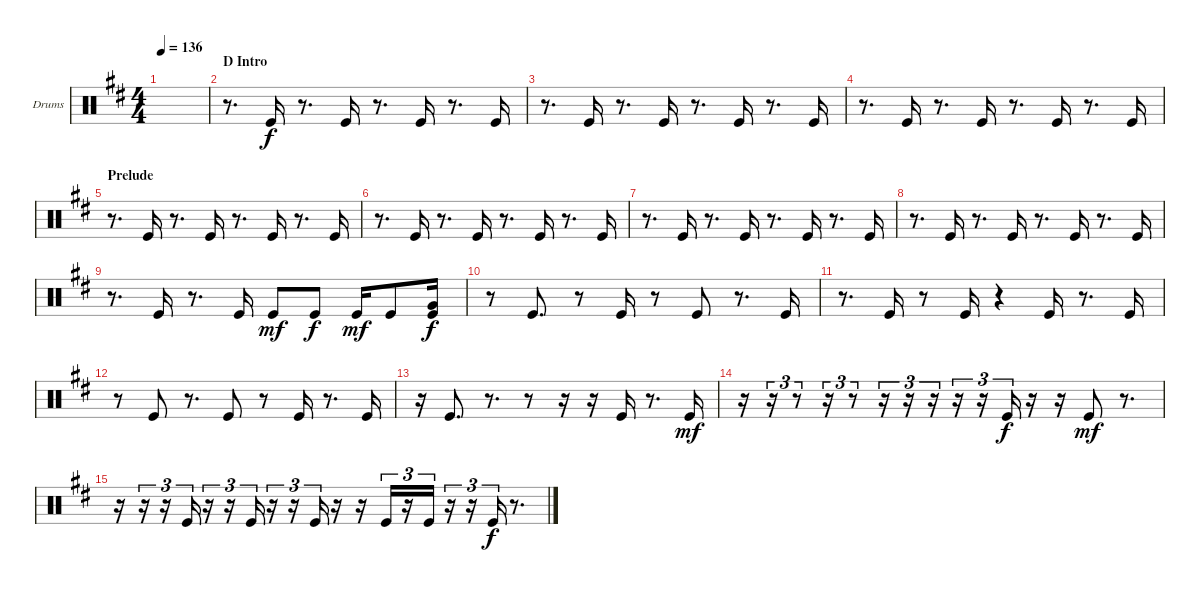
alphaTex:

\bracketExtendMode groupsimilarinstruments
\firstSystemTrackNameOrientation horizontal
\otherSystemsTrackNameOrientation horizontal
\track ("Kick" "Drums") {instrument percussion}
\staff {score}
\articulation defaults
\ts (4 4)
\tempo 136
\clef neutral
\ks d
|
\section ("" "D Intro")
r.8{d} "Kick (hit)".16 r.8{d} "Kick (hit)".16 r.8{d} "Kick (hit)".16 r.8{d} "Kick (hit)".16 |
r.8{d} "Kick (hit)".16 r.8{d} "Kick (hit)".16 r.8{d} "Kick (hit)".16 r.8{d} "Kick (hit)".16 |
r.8{d} "Kick (hit)".16 r.8{d} "Kick (hit)".16 r.8{d} "Kick (hit)".16 r.8{d} "Kick (hit)".16 |
\section ("" "Prelude")
r.8{d} "Kick (hit)".16 r.8{d} "Kick (hit)".16 r.8{d} "Kick (hit)".16 r.8{d} "Kick (hit)".16 |
r.8{d} "Kick (hit)".16 r.8{d} "Kick (hit)".16 r.8{d} "Kick (hit)".16 r.8{d} "Kick (hit)".16 |
r.8{d} "Kick (hit)".16 r.8{d} "Kick (hit)".16 r.8{d} "Kick (hit)".16 r.8{d} "Kick (hit)".16 |
r.8{d} "Kick (hit)".16 r.8{d} "Kick (hit)".16 r.8{d} "Kick (hit)".16 r.8{d} "Kick (hit)".16 |
r.8{d} "Kick (hit)".16 r.8{d} "Kick (hit)".16 "Kick (hit)".8{dy mf} "Kick (hit)".8{dy f} "Kick (hit)".16{dy mf} "Kick (hit)".8 ("Kick (hit)" "Very Low Tom (hit)").16{dy f} |
r.8 "Kick (hit)".8{d} r.8 "Kick (hit)".16 r.8 "Kick (hit)".8 r.8{d} "Kick (hit)".16 |
r.8{d} "Kick (hit)".16 r.8 "Kick (hit)".16 r.4 "Kick (hit)".16 r.8{d} "Kick (hit)".16 |
r.8 "Kick (hit)".8 r.8{d} "Kick (hit)".8 r.8 "Kick (hit)".16 r.8{d} "Kick (hit)".16 |
r.16 "Kick (hit)".8{d} r.8{d} r.8 r.16 r.16 "Kick (hit)".16 r.8{d} "Kick (hit)".16{dy mf} |
r.16 r.16{tu (3 2)} r.8{tu (3 2)} r.16{tu (3 2)} r.8{tu (3 2)} r.16{tu (3 2)} r.16{tu (3 2)} r.16{tu (3 2)} r.16{tu (3 2)} r.16{tu (3 2)} "Kick (hit)".16{tu (3 2) dy f} r.16 r.16 "Kick (hit)".8{dy mf} r.8{d} |
r.16 r.16{tu (3 2)} r.16{tu (3 2)} "Kick (hit)".16{tu (3 2)} r.16{tu (3 2)} r.16{tu (3 2)} "Kick (hit)".16{tu (3 2)} r.16{tu (3 2)} r.16{tu (3 2)} "Kick (hit)".16{tu (3 2)} r.16 r.16 "Kick (hit)".16{tu (3 2)} r.16{tu (3 2)} "Kick (hit)".16{tu (3 2)} r.16{tu (3 2)} r.16{tu (3 2)} "Kick (hit)".16{tu (3 2) dy f} r.8{d}
